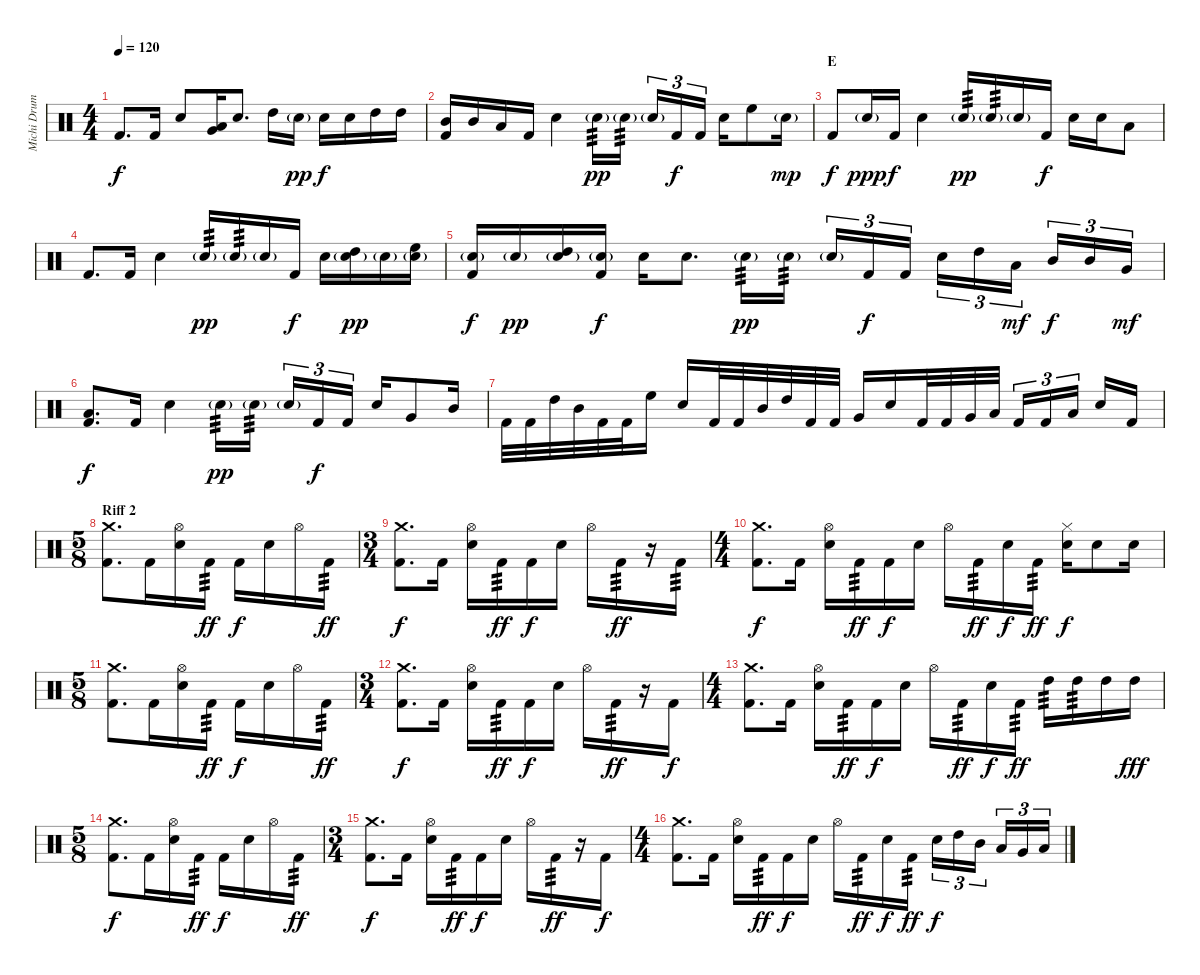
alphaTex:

\track ("Michi Drums" "Michi Drum") {instrument percussion}
\staff {score}
\articulation defaults
\ts (4 4)
\tempo 120
\clef neutral
\ks c "Kick (hit) 2".8{d dy f} "Kick (hit) 2".16 "Electric Snare (hit)".8
("Very Low Tom (hit)" "Low Floor Tom (hit)").16 "Electric Snare (hit)".8{d} "High Tom (hit)".16 "Electric Snare (hit)"{g}.16{dy pp} "Electric Snare (hit)".16{dy f} "Electric Snare (hit)".16 "High Tom (hit)".16 "High Tom (hit)".16 |
("Mid Tom (hit)" "Kick (hit) 2").16 "Mid Tom (hit)".16 "Low Floor Tom (hit)".16 "Kick (hit) 2".16 "Electric Snare (hit)".4 "Electric Snare (hit)"{g}.16{tp 3 dy pp} "Electric Snare (hit)"{g}.16{tp 3} "Electric Snare (hit)"{g}.16{tu (3 2)} "Kick (hit) 2".16{tu (3 2) dy f} "Kick (hit) 2".16{tu (3 2)} "Electric Snare (hit)".16 "High Floor Tom (hit)".8 "Electric Snare (hit)"{g}.16{dy mp} |
\section ("" "E")
"Kick (hit) 2".8{dy f} "Electric Snare (hit)"{g}.16{dy ppp} "Kick (hit) 2".16{dy f} "Electric Snare (hit)".4 "Electric Snare (hit)"{g}.16{tp 3 dy pp} "Electric Snare (hit)"{g}.16{tp 3} "Electric Snare (hit)"{g}.16 "Kick (hit) 2".16{dy f} "Electric Snare (hit)".16 "Electric Snare (hit)".16 "Low Floor Tom (hit)".8 |
"Kick (hit) 2".8{d} "Kick (hit) 2".16 "Electric Snare (hit)".4 "Electric Snare (hit)"{g}.16{tp 3 dy pp} "Electric Snare (hit)"{g}.16{tp 3} "Electric Snare (hit)"{g}.16 "Kick (hit) 2".16{dy f} "Electric Snare (hit)".16 ("High Tom (hit)" "Electric Snare (hit)"{g}).16{dy pp} "Electric Snare (hit)"{g}.16 ("High Floor Tom (hit)" "Electric Snare (hit)"{g}).16 |
("Electric Snare (hit)"{g} "Kick (hit) 2").16{dy f} "Electric Snare (hit)"{g}.16{dy pp} ("High Tom (hit)" "Electric Snare (hit)"{g}).16 ("Electric Snare (hit)"{g} "Kick (hit) 2").16{dy f} "Electric Snare (hit)".16 "Electric Snare (hit)".8{d} "Electric Snare (hit)"{g}.16{tp 3 dy pp} "Electric Snare (hit)"{g}.16{tp 3} "Electric Snare (hit)"{g}.16{tu (3 2)} "Kick (hit) 2".16{tu (3 2) dy f} "Kick (hit) 2".16{tu (3 2)} "Electric Snare (hit)".16{tu (3 2)} "High Tom (hit)".16{tu (3 2)} "Low Tom (hit)".16{tu (3 2) dy mf} "Mid Tom (hit)".16{tu (3 2) dy f} "Mid Tom (hit)".16{tu (3 2)} "Very Low Tom (hit)".16{tu (3 2) dy mf} |
("Low Floor Tom (hit)" "Kick (hit) 2").8{d dy f} "Kick (hit) 2".16 "Electric Snare (hit)".4 "Electric Snare (hit)"{g}.16{tp 3 dy pp} "Electric Snare (hit)"{g}.16{tp 3} "Electric Snare (hit)"{g}.16{tu (3 2)} "Kick (hit) 2".16{tu (3 2) dy f} "Kick (hit) 2".16{tu (3 2)} "Electric Snare (hit)".16 "Very Low Tom (hit)".8 "Mid Tom (hit)".16 |
"Kick (hit) 2".32 "Kick (hit) 2".32 "High Tom (hit)".32 "Mid Tom (hit)".32 "Kick (hit) 2".32 "Kick (hit) 2".32 "High Floor Tom (hit)".16 "Electric Snare (hit)".16 "Kick (hit) 2".32 "Kick (hit) 2".32 "Mid Tom (hit)".32 "High Tom (hit)".32 "Kick (hit) 2".32 "Kick (hit) 2".32 "Very Low Tom (hit)".16 "Electric Snare (hit)".16 "Kick (hit) 2".32 "Kick (hit) 2".32 "Very Low Tom (hit)".32 "Low Tom (hit)".32 "Kick (hit) 2".16{tu (3 2)} "Kick (hit) 2".16{tu (3 2)} "Low Floor Tom (hit)".16{tu (3 2)} "Electric Snare (hit)".16 "Kick (hit) 2".16 |
\ts (5 8)
\section ("" "Riff 2")
("Crash medium (hit)" "Kick (hit) 2").8{d} "Kick (hit) 2".16 ("Hi-Hat (open)" "Electric Snare (hit)").16 "Kick (hit) 2".16{tp 3 dy ff} "Kick (hit) 2".16{dy f} "Electric Snare (hit)".16 "Hi-Hat (open)".16 "Kick (hit) 2".16{tp 3 dy ff} |
\ts (3 4)
("Crash medium (hit)" "Kick (hit) 2").8{d dy f} "Kick (hit) 2".16 ("Hi-Hat (open)" "Electric Snare (hit)").16 "Kick (hit) 2".16{tp 3 dy ff} "Kick (hit) 2".16{dy f} "Electric Snare (hit)".16 "Hi-Hat (open)".16 "Kick (hit) 2".16{tp 3 dy ff} r.16 "Kick (hit) 2".16{tp 3} |
\ts (4 4)
("Crash medium (hit)" "Kick (hit) 2").8{d dy f} "Kick (hit) 2".16 ("Hi-Hat (open)" "Electric Snare (hit)").16 "Kick (hit) 2".16{tp 3 dy ff} "Kick (hit) 2".16{dy f} "Electric Snare (hit)".16 "Hi-Hat (open)".16 "Kick (hit) 2".16{tp 3 dy ff} "Electric Snare (hit)".16{dy f} "Kick (hit) 2".16{tp 3 dy ff} ("Hi-Hat (closed)" "Electric Snare (hit)").16{dy f} "Electric Snare (hit)".8 "Electric Snare (hit)".16 |
\ts (5 8)
("Crash medium (hit)" "Kick (hit) 2").8{d} "Kick (hit) 2".16 ("Hi-Hat (open)" "Electric Snare (hit)").16 "Kick (hit) 2".16{tp 3 dy ff} "Kick (hit) 2".16{dy f} "Electric Snare (hit)".16 "Hi-Hat (open)".16 "Kick (hit) 2".16{tp 3 dy ff} |
\ts (3 4)
("Crash medium (hit)" "Kick (hit) 2").8{d dy f} "Kick (hit) 2".16 ("Hi-Hat (open)" "Electric Snare (hit)").16 "Kick (hit) 2".16{tp 3 dy ff} "Kick (hit) 2".16{dy f} "Electric Snare (hit)".16 "Hi-Hat (open)".16 "Kick (hit) 2".16{tp 3 dy ff} r.16 "Kick (hit) 2".16{dy f} |
\ts (4 4)
("Crash medium (hit)" "Kick (hit) 2").8{d} "Kick (hit) 2".16 ("Hi-Hat (open)" "Electric Snare (hit)").16 "Kick (hit) 2".16{tp 3 dy ff} "Kick (hit) 2".16{dy f} "Electric Snare (hit)".16 "Hi-Hat (open)".16 "Kick (hit) 2".16{tp 3 dy ff} "Electric Snare (hit)".16{dy f} "Kick (hit) 2".16{tp 3 dy ff} "High Tom (hit)".16{tp 3} "High Tom (hit)".16{tp 3} "High Tom (hit)".16 "High Tom (hit)".16{dy fff} |
\ts (5 8)
("Crash medium (hit)" "Kick (hit) 2").8{d dy f} "Kick (hit) 2".16 ("Hi-Hat (open)" "Electric Snare (hit)").16 "Kick (hit) 2".16{tp 3 dy ff} "Kick (hit) 2".16{dy f} "Electric Snare (hit)".16 "Hi-Hat (open)".16 "Kick (hit) 2".16{tp 3 dy ff} |
\ts (3 4)
("Crash medium (hit)" "Kick (hit) 2").8{d dy f} "Kick (hit) 2".16 ("Hi-Hat (open)" "Electric Snare (hit)").16 "Kick (hit) 2".16{tp 3 dy ff} "Kick (hit) 2".16{dy f} "Electric Snare (hit)".16 "Hi-Hat (open)".16 "Kick (hit) 2".16{tp 3 dy ff} r.16 "Kick (hit) 2".16{dy f} |
\ts (4 4)
("Crash medium (hit)" "Kick (hit) 2").8{d} "Kick (hit) 2".16 ("Hi-Hat (open)" "Electric Snare (hit)").16 "Kick (hit) 2".16{tp 3 dy ff} "Kick (hit) 2".16{dy f} "Electric Snare (hit)".16 "Hi-Hat (open)".16 "Kick (hit) 2".16{tp 3 dy ff} "Electric Snare (hit)".16{dy f} "Kick (hit) 2".16{tp 3 dy ff} "Electric Snare (hit)".16{tu (3 2) dy f} "High Tom (hit)".16{tu (3 2)} "Mid Tom (hit)".16{tu (3 2)} "Low Tom (hit)".16{tu (3 2)} "Very Low Tom (hit)".16{tu (3 2)} "Low Floor Tom (hit)".16{tu (3 2)}
